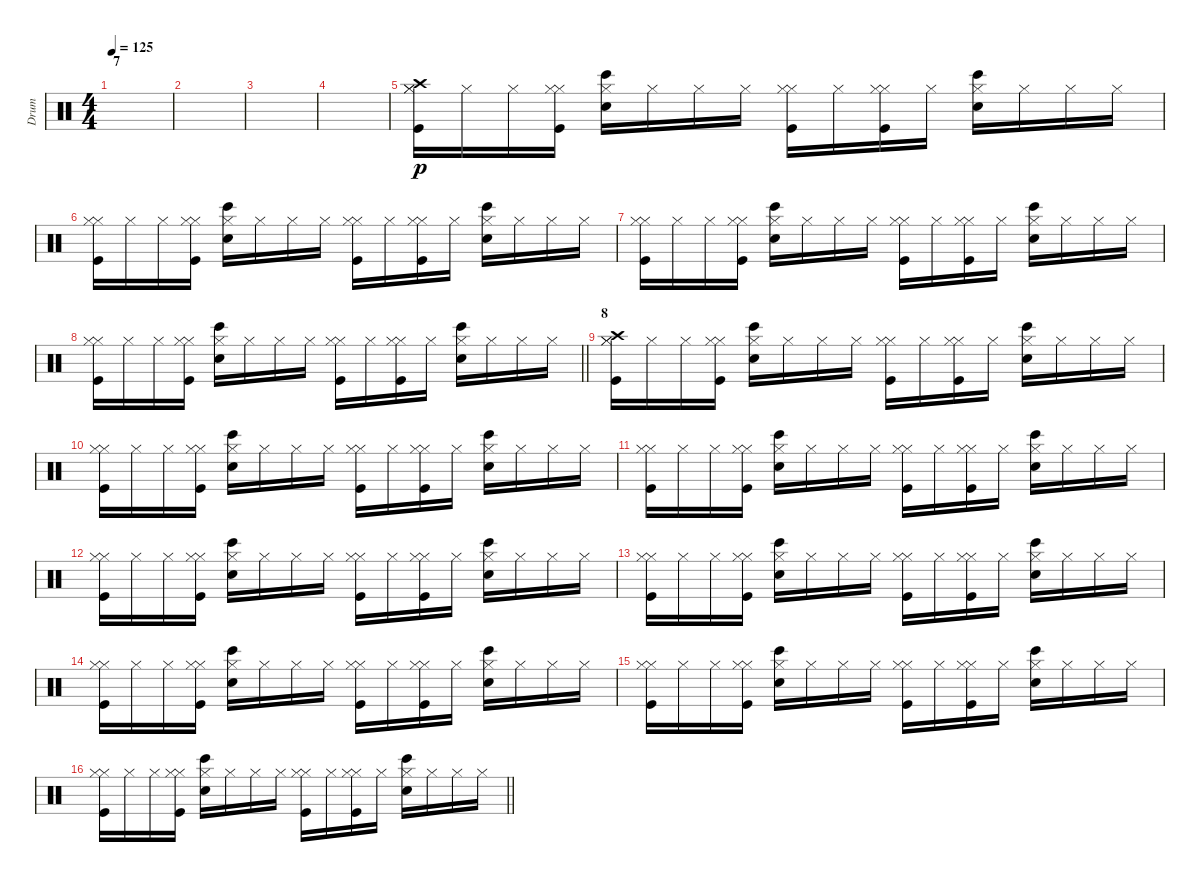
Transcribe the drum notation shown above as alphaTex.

\track ("Drum" "Drum") {instrument percussion}
\staff {score}
\articulation defaults
\ts (4 4)
\section ("" "7")
\tempo 125
\clef neutral
\ks c
|
|
|
|
("Hi-Hat (closed)" "Kick (hit)" "Hi-Hat (closed)" "Crash high (hit)").16{dy p} "Hi-Hat (closed)".16 "Hi-Hat (closed)".16 ("Hi-Hat (closed)" "Kick (hit)" "Hi-Hat (closed)").16 ("Snare (hit) 2" "Bongo High (hit)" "Hi-Hat (closed)").16 "Hi-Hat (closed)".16 "Hi-Hat (closed)".16 "Hi-Hat (closed)".16 ("Hi-Hat (closed)" "Kick (hit)" "Hi-Hat (closed)").16 "Hi-Hat (closed)".16 ("Hi-Hat (closed)" "Kick (hit)" "Hi-Hat (closed)").16 "Hi-Hat (closed)".16 ("Snare (hit) 2" "Bongo High (hit)" "Hi-Hat (closed)").16 "Hi-Hat (closed)".16 "Hi-Hat (closed)".16 "Hi-Hat (closed)".16 |
("Hi-Hat (closed)" "Kick (hit)" "Hi-Hat (closed)").16 "Hi-Hat (closed)".16 "Hi-Hat (closed)".16 ("Hi-Hat (closed)" "Kick (hit)" "Hi-Hat (closed)").16 ("Snare (hit) 2" "Bongo High (hit)" "Hi-Hat (closed)").16 "Hi-Hat (closed)".16 "Hi-Hat (closed)".16 "Hi-Hat (closed)".16 ("Hi-Hat (closed)" "Kick (hit)" "Hi-Hat (closed)").16 "Hi-Hat (closed)".16 ("Hi-Hat (closed)" "Kick (hit)" "Hi-Hat (closed)").16 "Hi-Hat (closed)".16 ("Snare (hit) 2" "Bongo High (hit)" "Hi-Hat (closed)").16 "Hi-Hat (closed)".16 "Hi-Hat (closed)".16 "Hi-Hat (closed)".16 |
("Hi-Hat (closed)" "Kick (hit)" "Hi-Hat (closed)").16 "Hi-Hat (closed)".16 "Hi-Hat (closed)".16 ("Hi-Hat (closed)" "Kick (hit)" "Hi-Hat (closed)").16 ("Snare (hit) 2" "Bongo High (hit)" "Hi-Hat (closed)").16 "Hi-Hat (closed)".16 "Hi-Hat (closed)".16 "Hi-Hat (closed)".16 ("Hi-Hat (closed)" "Kick (hit)" "Hi-Hat (closed)").16 "Hi-Hat (closed)".16 ("Hi-Hat (closed)" "Kick (hit)" "Hi-Hat (closed)").16 "Hi-Hat (closed)".16 ("Snare (hit) 2" "Bongo High (hit)" "Hi-Hat (closed)").16 "Hi-Hat (closed)".16 "Hi-Hat (closed)".16 "Hi-Hat (closed)".16 |
\barLineRight lightlight
("Hi-Hat (closed)" "Kick (hit)" "Hi-Hat (closed)").16 "Hi-Hat (closed)".16 "Hi-Hat (closed)".16 ("Hi-Hat (closed)" "Kick (hit)" "Hi-Hat (closed)").16 ("Snare (hit) 2" "Bongo High (hit)" "Hi-Hat (closed)").16 "Hi-Hat (closed)".16 "Hi-Hat (closed)".16 "Hi-Hat (closed)".16 ("Hi-Hat (closed)" "Kick (hit)" "Hi-Hat (closed)").16 "Hi-Hat (closed)".16 ("Hi-Hat (closed)" "Kick (hit)" "Hi-Hat (closed)").16 "Hi-Hat (closed)".16 ("Snare (hit) 2" "Bongo High (hit)" "Hi-Hat (closed)").16 "Hi-Hat (closed)".16 "Hi-Hat (closed)".16 "Hi-Hat (closed)".16 |
\section ("" "8")
("Hi-Hat (closed)" "Kick (hit)" "Hi-Hat (closed)" "Crash high (hit)").16 "Hi-Hat (closed)".16 "Hi-Hat (closed)".16 ("Hi-Hat (closed)" "Kick (hit)" "Hi-Hat (closed)").16 ("Snare (hit) 2" "Bongo High (hit)" "Hi-Hat (closed)").16 "Hi-Hat (closed)".16 "Hi-Hat (closed)".16 "Hi-Hat (closed)".16 ("Hi-Hat (closed)" "Kick (hit)" "Hi-Hat (closed)").16 "Hi-Hat (closed)".16 ("Hi-Hat (closed)" "Kick (hit)" "Hi-Hat (closed)").16 "Hi-Hat (closed)".16 ("Snare (hit) 2" "Bongo High (hit)" "Hi-Hat (closed)").16 "Hi-Hat (closed)".16 "Hi-Hat (closed)".16 "Hi-Hat (closed)".16 |
("Hi-Hat (closed)" "Kick (hit)" "Hi-Hat (closed)").16 "Hi-Hat (closed)".16 "Hi-Hat (closed)".16 ("Hi-Hat (closed)" "Kick (hit)" "Hi-Hat (closed)").16 ("Snare (hit) 2" "Bongo High (hit)" "Hi-Hat (closed)").16 "Hi-Hat (closed)".16 "Hi-Hat (closed)".16 "Hi-Hat (closed)".16 ("Hi-Hat (closed)" "Kick (hit)" "Hi-Hat (closed)").16 "Hi-Hat (closed)".16 ("Hi-Hat (closed)" "Kick (hit)" "Hi-Hat (closed)").16 "Hi-Hat (closed)".16 ("Snare (hit) 2" "Bongo High (hit)" "Hi-Hat (closed)").16 "Hi-Hat (closed)".16 "Hi-Hat (closed)".16 "Hi-Hat (closed)".16 |
("Hi-Hat (closed)" "Kick (hit)" "Hi-Hat (closed)").16 "Hi-Hat (closed)".16 "Hi-Hat (closed)".16 ("Hi-Hat (closed)" "Kick (hit)" "Hi-Hat (closed)").16 ("Snare (hit) 2" "Bongo High (hit)" "Hi-Hat (closed)").16 "Hi-Hat (closed)".16 "Hi-Hat (closed)".16 "Hi-Hat (closed)".16 ("Hi-Hat (closed)" "Kick (hit)" "Hi-Hat (closed)").16 "Hi-Hat (closed)".16 ("Hi-Hat (closed)" "Kick (hit)" "Hi-Hat (closed)").16 "Hi-Hat (closed)".16 ("Snare (hit) 2" "Bongo High (hit)" "Hi-Hat (closed)").16 "Hi-Hat (closed)".16 "Hi-Hat (closed)".16 "Hi-Hat (closed)".16 |
("Hi-Hat (closed)" "Kick (hit)" "Hi-Hat (closed)").16 "Hi-Hat (closed)".16 "Hi-Hat (closed)".16 ("Hi-Hat (closed)" "Kick (hit)" "Hi-Hat (closed)").16 ("Snare (hit) 2" "Bongo High (hit)" "Hi-Hat (closed)").16 "Hi-Hat (closed)".16 "Hi-Hat (closed)".16 "Hi-Hat (closed)".16 ("Hi-Hat (closed)" "Kick (hit)" "Hi-Hat (closed)").16 "Hi-Hat (closed)".16 ("Hi-Hat (closed)" "Kick (hit)" "Hi-Hat (closed)").16 "Hi-Hat (closed)".16 ("Snare (hit) 2" "Bongo High (hit)" "Hi-Hat (closed)").16 "Hi-Hat (closed)".16 "Hi-Hat (closed)".16 "Hi-Hat (closed)".16 |
("Hi-Hat (closed)" "Kick (hit)" "Hi-Hat (closed)").16 "Hi-Hat (closed)".16 "Hi-Hat (closed)".16 ("Hi-Hat (closed)" "Kick (hit)" "Hi-Hat (closed)").16 ("Snare (hit) 2" "Bongo High (hit)" "Hi-Hat (closed)").16 "Hi-Hat (closed)".16 "Hi-Hat (closed)".16 "Hi-Hat (closed)".16 ("Hi-Hat (closed)" "Kick (hit)" "Hi-Hat (closed)").16 "Hi-Hat (closed)".16 ("Hi-Hat (closed)" "Kick (hit)" "Hi-Hat (closed)").16 "Hi-Hat (closed)".16 ("Snare (hit) 2" "Bongo High (hit)" "Hi-Hat (closed)").16 "Hi-Hat (closed)".16 "Hi-Hat (closed)".16 "Hi-Hat (closed)".16 |
("Hi-Hat (closed)" "Kick (hit)" "Hi-Hat (closed)").16 "Hi-Hat (closed)".16 "Hi-Hat (closed)".16 ("Hi-Hat (closed)" "Kick (hit)" "Hi-Hat (closed)").16 ("Snare (hit) 2" "Bongo High (hit)" "Hi-Hat (closed)").16 "Hi-Hat (closed)".16 "Hi-Hat (closed)".16 "Hi-Hat (closed)".16 ("Hi-Hat (closed)" "Kick (hit)" "Hi-Hat (closed)").16 "Hi-Hat (closed)".16 ("Hi-Hat (closed)" "Kick (hit)" "Hi-Hat (closed)").16 "Hi-Hat (closed)".16 ("Snare (hit) 2" "Bongo High (hit)" "Hi-Hat (closed)").16 "Hi-Hat (closed)".16 "Hi-Hat (closed)".16 "Hi-Hat (closed)".16 |
("Hi-Hat (closed)" "Kick (hit)" "Hi-Hat (closed)").16 "Hi-Hat (closed)".16 "Hi-Hat (closed)".16 ("Hi-Hat (closed)" "Kick (hit)" "Hi-Hat (closed)").16 ("Snare (hit) 2" "Bongo High (hit)" "Hi-Hat (closed)").16 "Hi-Hat (closed)".16 "Hi-Hat (closed)".16 "Hi-Hat (closed)".16 ("Hi-Hat (closed)" "Kick (hit)" "Hi-Hat (closed)").16 "Hi-Hat (closed)".16 ("Hi-Hat (closed)" "Kick (hit)" "Hi-Hat (closed)").16 "Hi-Hat (closed)".16 ("Snare (hit) 2" "Bongo High (hit)" "Hi-Hat (closed)").16 "Hi-Hat (closed)".16 "Hi-Hat (closed)".16 "Hi-Hat (closed)".16 |
\barLineRight lightlight
("Hi-Hat (closed)" "Kick (hit)" "Hi-Hat (closed)").16 "Hi-Hat (closed)".16 "Hi-Hat (closed)".16 ("Hi-Hat (closed)" "Kick (hit)" "Hi-Hat (closed)").16 ("Snare (hit) 2" "Bongo High (hit)" "Hi-Hat (closed)").16 "Hi-Hat (closed)".16 "Hi-Hat (closed)".16 "Hi-Hat (closed)".16 ("Hi-Hat (closed)" "Kick (hit)" "Hi-Hat (closed)").16 "Hi-Hat (closed)".16 ("Hi-Hat (closed)" "Kick (hit)" "Hi-Hat (closed)").16 "Hi-Hat (closed)".16 ("Snare (hit) 2" "Bongo High (hit)" "Hi-Hat (closed)").16 "Hi-Hat (closed)".16 "Hi-Hat (closed)".16 "Hi-Hat (closed)".16
